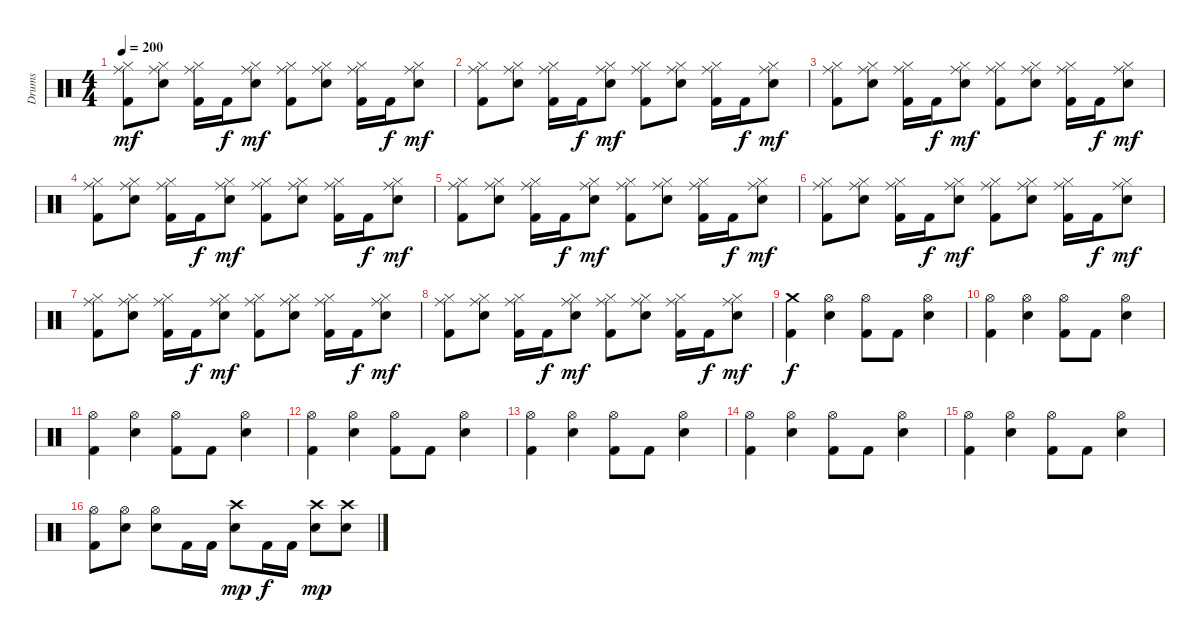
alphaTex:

\track ("Drums" "Drums") {instrument percussion}
\staff {score}
\articulation defaults
\ts (4 4)
\tempo 200
\clef neutral
\ks c
("Hi-Hat (closed)" "Ride (middle)" "Kick (hit) 2").8{dy mf} ("Hi-Hat (closed)" "Ride (middle)" "Snare (hit) 2").8 ("Hi-Hat (closed)" "Ride (middle)" "Kick (hit) 2").16 "Kick (hit) 2".16{dy f} ("Hi-Hat (closed)" "Ride (middle)" "Snare (hit) 2").8{dy mf} ("Hi-Hat (closed)" "Ride (middle)" "Kick (hit) 2").8 ("Hi-Hat (closed)" "Ride (middle)" "Snare (hit) 2").8 ("Hi-Hat (closed)" "Ride (middle)" "Kick (hit) 2").16 "Kick (hit) 2".16{dy f} ("Hi-Hat (closed)" "Ride (middle)" "Snare (hit) 2").8{dy mf} |
("Hi-Hat (closed)" "Ride (middle)" "Kick (hit) 2").8 ("Hi-Hat (closed)" "Ride (middle)" "Snare (hit) 2").8 ("Hi-Hat (closed)" "Ride (middle)" "Kick (hit) 2").16 "Kick (hit) 2".16{dy f} ("Hi-Hat (closed)" "Ride (middle)" "Snare (hit) 2").8{dy mf} ("Hi-Hat (closed)" "Ride (middle)" "Kick (hit) 2").8 ("Hi-Hat (closed)" "Ride (middle)" "Snare (hit) 2").8 ("Hi-Hat (closed)" "Ride (middle)" "Kick (hit) 2").16 "Kick (hit) 2".16{dy f} ("Hi-Hat (closed)" "Ride (middle)" "Snare (hit) 2").8{dy mf} |
("Hi-Hat (closed)" "Ride (middle)" "Kick (hit) 2").8 ("Hi-Hat (closed)" "Ride (middle)" "Snare (hit) 2").8 ("Hi-Hat (closed)" "Ride (middle)" "Kick (hit) 2").16 "Kick (hit) 2".16{dy f} ("Hi-Hat (closed)" "Ride (middle)" "Snare (hit) 2").8{dy mf} ("Hi-Hat (closed)" "Ride (middle)" "Kick (hit) 2").8 ("Hi-Hat (closed)" "Ride (middle)" "Snare (hit) 2").8 ("Hi-Hat (closed)" "Ride (middle)" "Kick (hit) 2").16 "Kick (hit) 2".16{dy f} ("Hi-Hat (closed)" "Ride (middle)" "Snare (hit) 2").8{dy mf} |
("Hi-Hat (closed)" "Ride (middle)" "Kick (hit) 2").8 ("Hi-Hat (closed)" "Ride (middle)" "Snare (hit) 2").8 ("Hi-Hat (closed)" "Ride (middle)" "Kick (hit) 2").16 "Kick (hit) 2".16{dy f} ("Hi-Hat (closed)" "Ride (middle)" "Snare (hit) 2").8{dy mf} ("Hi-Hat (closed)" "Ride (middle)" "Kick (hit) 2").8 ("Hi-Hat (closed)" "Ride (middle)" "Snare (hit) 2").8 ("Hi-Hat (closed)" "Ride (middle)" "Kick (hit) 2").16 "Kick (hit) 2".16{dy f} ("Hi-Hat (closed)" "Ride (middle)" "Snare (hit) 2").8{dy mf} |
("Hi-Hat (closed)" "Ride (middle)" "Kick (hit) 2").8 ("Hi-Hat (closed)" "Ride (middle)" "Snare (hit) 2").8 ("Hi-Hat (closed)" "Ride (middle)" "Kick (hit) 2").16 "Kick (hit) 2".16{dy f} ("Hi-Hat (closed)" "Ride (middle)" "Snare (hit) 2").8{dy mf} ("Hi-Hat (closed)" "Ride (middle)" "Kick (hit) 2").8 ("Hi-Hat (closed)" "Ride (middle)" "Snare (hit) 2").8 ("Hi-Hat (closed)" "Ride (middle)" "Kick (hit) 2").16 "Kick (hit) 2".16{dy f} ("Hi-Hat (closed)" "Ride (middle)" "Snare (hit) 2").8{dy mf} |
("Hi-Hat (closed)" "Ride (middle)" "Kick (hit) 2").8 ("Hi-Hat (closed)" "Ride (middle)" "Snare (hit) 2").8 ("Hi-Hat (closed)" "Ride (middle)" "Kick (hit) 2").16 "Kick (hit) 2".16{dy f} ("Hi-Hat (closed)" "Ride (middle)" "Snare (hit) 2").8{dy mf} ("Hi-Hat (closed)" "Ride (middle)" "Kick (hit) 2").8 ("Hi-Hat (closed)" "Ride (middle)" "Snare (hit) 2").8 ("Hi-Hat (closed)" "Ride (middle)" "Kick (hit) 2").16 "Kick (hit) 2".16{dy f} ("Hi-Hat (closed)" "Ride (middle)" "Snare (hit) 2").8{dy mf} |
("Hi-Hat (closed)" "Ride (middle)" "Kick (hit) 2").8 ("Hi-Hat (closed)" "Ride (middle)" "Snare (hit) 2").8 ("Hi-Hat (closed)" "Ride (middle)" "Kick (hit) 2").16 "Kick (hit) 2".16{dy f} ("Hi-Hat (closed)" "Ride (middle)" "Snare (hit) 2").8{dy mf} ("Hi-Hat (closed)" "Ride (middle)" "Kick (hit) 2").8 ("Hi-Hat (closed)" "Ride (middle)" "Snare (hit) 2").8 ("Hi-Hat (closed)" "Ride (middle)" "Kick (hit) 2").16 "Kick (hit) 2".16{dy f} ("Hi-Hat (closed)" "Ride (middle)" "Snare (hit) 2").8{dy mf} |
("Hi-Hat (closed)" "Ride (middle)" "Kick (hit) 2").8 ("Hi-Hat (closed)" "Ride (middle)" "Snare (hit) 2").8 ("Hi-Hat (closed)" "Ride (middle)" "Kick (hit) 2").16 "Kick (hit) 2".16{dy f} ("Hi-Hat (closed)" "Ride (middle)" "Snare (hit) 2").8{dy mf} ("Hi-Hat (closed)" "Ride (middle)" "Kick (hit) 2").8 ("Hi-Hat (closed)" "Ride (middle)" "Snare (hit) 2").8 ("Hi-Hat (closed)" "Ride (middle)" "Kick (hit) 2").16 "Kick (hit) 2".16{dy f} ("Hi-Hat (closed)" "Ride (middle)" "Snare (hit) 2").8{dy mf} |
("Crash medium (hit)" "Kick (hit) 2").4{dy f} ("Hi-Hat (open)" "Snare (hit) 2").4 ("Hi-Hat (open)" "Kick (hit) 2").8 "Kick (hit) 2".8 ("Hi-Hat (open)" "Snare (hit) 2").4 |
("Hi-Hat (open)" "Kick (hit) 2").4 ("Hi-Hat (open)" "Snare (hit) 2").4 ("Hi-Hat (open)" "Kick (hit) 2").8 "Kick (hit) 2".8 ("Hi-Hat (open)" "Snare (hit) 2").4 |
("Hi-Hat (open)" "Kick (hit) 2").4 ("Hi-Hat (open)" "Snare (hit) 2").4 ("Hi-Hat (open)" "Kick (hit) 2").8 "Kick (hit) 2".8 ("Hi-Hat (open)" "Snare (hit) 2").4 |
("Hi-Hat (open)" "Kick (hit) 2").4 ("Hi-Hat (open)" "Snare (hit) 2").4 ("Hi-Hat (open)" "Kick (hit) 2").8 "Kick (hit) 2".8 ("Hi-Hat (open)" "Snare (hit) 2").4 |
("Hi-Hat (open)" "Kick (hit) 2").4 ("Hi-Hat (open)" "Snare (hit) 2").4 ("Hi-Hat (open)" "Kick (hit) 2").8 "Kick (hit) 2".8 ("Hi-Hat (open)" "Snare (hit) 2").4 |
("Hi-Hat (open)" "Kick (hit) 2").4 ("Hi-Hat (open)" "Snare (hit) 2").4 ("Hi-Hat (open)" "Kick (hit) 2").8 "Kick (hit) 2".8 ("Hi-Hat (open)" "Snare (hit) 2").4 |
("Hi-Hat (open)" "Kick (hit) 2").4 ("Hi-Hat (open)" "Snare (hit) 2").4 ("Hi-Hat (open)" "Kick (hit) 2").8 "Kick (hit) 2".8 ("Hi-Hat (open)" "Snare (hit) 2").4 |
("Hi-Hat (open)" "Kick (hit) 2").8 ("Hi-Hat (open)" "Snare (hit) 2").8 ("Hi-Hat (open)" "Snare (hit) 2").8 "Kick (hit) 2".16 "Kick (hit) 2".16 ("Crash high (hit)" "Snare (hit) 2").8{dy mp} "Kick (hit) 2".16{dy f} "Kick (hit) 2".16 ("Crash high (hit)" "Snare (hit) 2").8{dy mp} ("Crash high (hit)" "Snare (hit) 2").8
